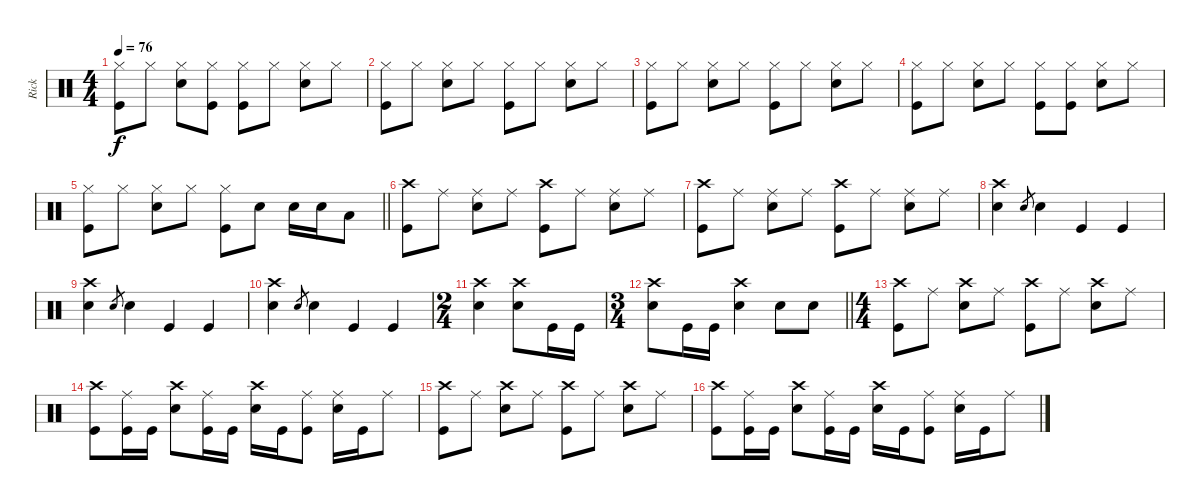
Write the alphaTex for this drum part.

\track ("Rick" "Rick") {instrument percussion}
\staff {score}
\articulation defaults
\ts (4 4)
\tempo 76
\clef neutral
\ks aminor
("Hi-Hat (closed)" "Kick (hit)").8{dy f} "Hi-Hat (closed)".8 ("Hi-Hat (closed)" "Snare (hit) 2").8 ("Hi-Hat (closed)" "Kick (hit)").8 ("Hi-Hat (closed)" "Kick (hit)").8 "Hi-Hat (closed)".8 ("Hi-Hat (closed)" "Snare (hit) 2").8 "Hi-Hat (closed)".8 |
("Hi-Hat (closed)" "Kick (hit)").8 "Hi-Hat (closed)".8 ("Hi-Hat (closed)" "Snare (hit) 2").8 "Hi-Hat (closed)".8 ("Hi-Hat (closed)" "Kick (hit)").8 "Hi-Hat (closed)".8 ("Hi-Hat (closed)" "Snare (hit) 2").8 "Hi-Hat (closed)".8 |
("Hi-Hat (closed)" "Kick (hit)").8 "Hi-Hat (closed)".8 ("Hi-Hat (closed)" "Snare (hit) 2").8 "Hi-Hat (closed)".8 ("Hi-Hat (closed)" "Kick (hit)").8 "Hi-Hat (closed)".8 ("Hi-Hat (closed)" "Snare (hit) 2").8 "Hi-Hat (closed)".8 |
("Hi-Hat (closed)" "Kick (hit)").8 "Hi-Hat (closed)".8 ("Hi-Hat (closed)" "Snare (hit) 2").8 "Hi-Hat (closed)".8 ("Hi-Hat (closed)" "Kick (hit)").8 ("Hi-Hat (closed)" "Kick (hit)").8 ("Hi-Hat (closed)" "Snare (hit) 2").8 "Hi-Hat (closed)".8 |
\barLineRight lightlight
("Hi-Hat (closed)" "Kick (hit)").8 "Hi-Hat (closed)".8 ("Hi-Hat (closed)" "Snare (hit) 2").8 "Hi-Hat (closed)".8 ("Hi-Hat (closed)" "Kick (hit)").8 "Snare (hit) 2".8 "Snare (hit) 2".16 "Snare (hit) 2".16 "Low Tom (hit)".8 |
("Crash high (hit)" "Kick (hit)").8 "Ride (middle)".8 ("Ride (middle)" "Snare (hit) 2").8 "Ride (middle)".8 ("Crash high (hit)" "Kick (hit)").8 "Ride (middle)".8 ("Ride (middle)" "Snare (hit) 2").8 "Ride (middle)".8 |
("Crash high (hit)" "Kick (hit)").8 "Ride (middle)".8 ("Ride (middle)" "Snare (hit) 2").8 "Ride (middle)".8 ("Crash high (hit)" "Kick (hit)").8 "Ride (middle)".8 ("Ride (middle)" "Snare (hit) 2").8 "Ride (middle)".8 |
("Crash high (hit)" "Snare (hit) 2").4 "Snare (hit) 2".8{gr} "Snare (hit) 2".4 "Kick (hit)".4 "Kick (hit)".4 |
("Crash high (hit)" "Snare (hit) 2").4 "Snare (hit) 2".8{gr} "Snare (hit) 2".4 "Kick (hit)".4 "Kick (hit)".4 |
("Crash high (hit)" "Snare (hit) 2").4 "Snare (hit) 2".8{gr} "Snare (hit) 2".4 "Kick (hit)".4 "Kick (hit)".4 |
\ts (2 4)
("Crash high (hit)" "Snare (hit) 2").4 ("Crash high (hit)" "Snare (hit) 2").8 "Kick (hit)".16 "Kick (hit)".16 |
\ts (3 4)
\barLineRight lightlight
("Crash high (hit)" "Snare (hit) 2").8 "Kick (hit)".16 "Kick (hit)".16 ("Crash high (hit)" "Snare (hit) 2").4 "Snare (hit) 2".8 "Snare (hit) 2".8 |
\ts (4 4)
("Crash high (hit)" "Kick (hit)").8 "Ride (middle)".8 ("Crash high (hit)" "Snare (hit) 2").8 "Ride (middle)".8 ("Crash high (hit)" "Kick (hit)").8 "Ride (middle)".8 ("Crash high (hit)" "Snare (hit) 2").8 "Ride (middle)".8 |
("Crash high (hit)" "Kick (hit)").8 ("Ride (middle)" "Kick (hit)").16 "Kick (hit)".16 ("Crash high (hit)" "Snare (hit) 2").8 ("Ride (middle)" "Kick (hit)").16 "Kick (hit)".16 ("Crash high (hit)" "Snare (hit) 2").16 "Kick (hit)".16 ("Ride (middle)" "Kick (hit)").8 ("Ride (middle)" "Snare (hit) 2").16 "Kick (hit)".16 "Ride (middle)".8 |
("Crash high (hit)" "Kick (hit)").8 "Ride (middle)".8 ("Crash high (hit)" "Snare (hit) 2").8 "Ride (middle)".8 ("Crash high (hit)" "Kick (hit)").8 "Ride (middle)".8 ("Crash high (hit)" "Snare (hit) 2").8 "Ride (middle)".8 |
("Crash high (hit)" "Kick (hit)").8 ("Ride (middle)" "Kick (hit)").16 "Kick (hit)".16 ("Crash high (hit)" "Snare (hit) 2").8 ("Ride (middle)" "Kick (hit)").16 "Kick (hit)".16 ("Crash high (hit)" "Snare (hit) 2").16 "Kick (hit)".16 ("Ride (middle)" "Kick (hit)").8 ("Ride (middle)" "Snare (hit) 2").16 "Kick (hit)".16 "Ride (middle)".8
